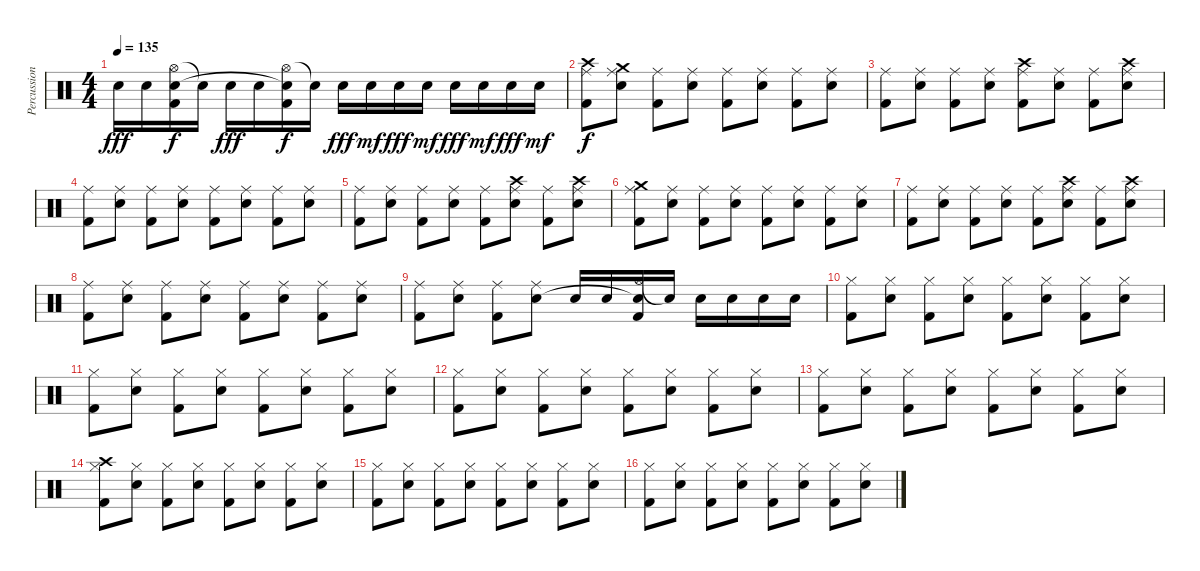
\track ("Percussion" "Percussion") {instrument percussion}
\staff {score}
\articulation defaults
\ts (4 4)
\tempo 135
\clef neutral
\ks c "Electric Snare (hit)".16{dy fff} "Electric Snare (hit)".16
("Hi-Hat (open)" "Snare (hit)"{t} "Kick (hit) 2").16{dy f} "Electric Snare (hit)"{t}.16 "Electric Snare (hit)".16{dy fff} "Electric Snare (hit)".16 ("Hi-Hat (open)" "Snare (hit)"{t} "Kick (hit) 2").16{dy f} "Electric Snare (hit)"{t}.16 "Electric Snare (hit)".16{dy fff} "Electric Snare (hit)".16{dy mf} "Electric Snare (hit)".16{dy fff} "Electric Snare (hit)".16{dy mf} "Electric Snare (hit)".16{dy fff} "Electric Snare (hit)".16{dy mf} "Electric Snare (hit)".16{dy fff} "Electric Snare (hit)".16{dy mf} |
("Crash high (hit)" "Ride (middle)" "Kick (hit) 2").8{dy f} ("Crash medium (hit)" "Ride (middle)" "Electric Snare (hit)").8 ("Ride (middle)" "Kick (hit) 2").8 ("Ride (middle)" "Electric Snare (hit)").8 ("Ride (middle)" "Kick (hit) 2").8 ("Ride (middle)" "Electric Snare (hit)").8 ("Ride (middle)" "Kick (hit) 2").8 ("Ride (middle)" "Electric Snare (hit)").8 |
("Ride (middle)" "Kick (hit) 2").8 ("Ride (middle)" "Electric Snare (hit)").8 ("Ride (middle)" "Kick (hit) 2").8 ("Ride (middle)" "Electric Snare (hit)").8 ("Crash high (hit)" "Ride (middle)" "Kick (hit) 2").8 ("Ride (middle)" "Electric Snare (hit)").8 ("Ride (middle)" "Kick (hit) 2").8 ("Crash high (hit)" "Ride (middle)" "Electric Snare (hit)").8 |
("Ride (middle)" "Kick (hit) 2").8 ("Ride (middle)" "Electric Snare (hit)").8 ("Ride (middle)" "Kick (hit) 2").8 ("Ride (middle)" "Electric Snare (hit)").8 ("Ride (middle)" "Kick (hit) 2").8 ("Ride (middle)" "Electric Snare (hit)").8 ("Ride (middle)" "Kick (hit) 2").8 ("Ride (middle)" "Electric Snare (hit)").8 |
("Ride (middle)" "Kick (hit) 2").8 ("Ride (middle)" "Electric Snare (hit)").8 ("Ride (middle)" "Kick (hit) 2").8 ("Ride (middle)" "Electric Snare (hit)").8 ("Ride (middle)" "Kick (hit) 2").8 ("Crash high (hit)" "Ride (middle)" "Electric Snare (hit)").8 ("Ride (middle)" "Kick (hit) 2").8 ("Crash high (hit)" "Ride (middle)" "Electric Snare (hit)").8 |
("Crash medium (hit)" "Ride (middle)" "Kick (hit) 2").8 ("Ride (middle)" "Electric Snare (hit)").8 ("Ride (middle)" "Kick (hit) 2").8 ("Ride (middle)" "Electric Snare (hit)").8 ("Ride (middle)" "Kick (hit) 2").8 ("Ride (middle)" "Electric Snare (hit)").8 ("Ride (middle)" "Kick (hit) 2").8 ("Ride (middle)" "Electric Snare (hit)").8 |
("Ride (middle)" "Kick (hit) 2").8 ("Ride (middle)" "Electric Snare (hit)").8 ("Ride (middle)" "Kick (hit) 2").8 ("Ride (middle)" "Electric Snare (hit)").8 ("Ride (middle)" "Kick (hit) 2").8 ("Crash high (hit)" "Ride (middle)" "Electric Snare (hit)").8 ("Ride (middle)" "Kick (hit) 2").8 ("Crash high (hit)" "Ride (middle)" "Electric Snare (hit)").8 |
("Ride (middle)" "Kick (hit) 2").8 ("Ride (middle)" "Electric Snare (hit)").8 ("Ride (middle)" "Kick (hit) 2").8 ("Ride (middle)" "Electric Snare (hit)").8 ("Ride (middle)" "Kick (hit) 2").8 ("Ride (middle)" "Electric Snare (hit)").8 ("Ride (middle)" "Kick (hit) 2").8 ("Ride (middle)" "Electric Snare (hit)").8 |
("Ride (middle)" "Kick (hit) 2").8 ("Ride (middle)" "Electric Snare (hit)").8 ("Ride (middle)" "Kick (hit) 2").8 ("Ride (middle)" "Electric Snare (hit)").8 "Electric Snare (hit)".16 "Electric Snare (hit)".16 ("Hi-Hat (open)" "Electric Snare (hit)"{t} "Kick (hit) 2").16 "Electric Snare (hit)"{t}.16 "Electric Snare (hit)".16 "Electric Snare (hit)".16 "Electric Snare (hit)".16 "Electric Snare (hit)".16 |
("Hi-Hat (closed)" "Kick (hit) 2").8 ("Hi-Hat (closed)" "Electric Snare (hit)").8 ("Hi-Hat (closed)" "Kick (hit) 2").8 ("Hi-Hat (closed)" "Electric Snare (hit)").8 ("Hi-Hat (closed)" "Kick (hit) 2").8 ("Hi-Hat (closed)" "Electric Snare (hit)").8 ("Hi-Hat (closed)" "Kick (hit) 2").8 ("Hi-Hat (closed)" "Electric Snare (hit)").8 |
("Hi-Hat (closed)" "Kick (hit) 2").8 ("Hi-Hat (closed)" "Electric Snare (hit)").8 ("Hi-Hat (closed)" "Kick (hit) 2").8 ("Hi-Hat (closed)" "Electric Snare (hit)").8 ("Hi-Hat (closed)" "Kick (hit) 2").8 ("Hi-Hat (closed)" "Electric Snare (hit)").8 ("Hi-Hat (closed)" "Kick (hit) 2").8 ("Hi-Hat (closed)" "Electric Snare (hit)").8 |
("Hi-Hat (closed)" "Kick (hit) 2").8 ("Hi-Hat (closed)" "Electric Snare (hit)").8 ("Hi-Hat (closed)" "Kick (hit) 2").8 ("Hi-Hat (closed)" "Electric Snare (hit)").8 ("Hi-Hat (closed)" "Kick (hit) 2").8 ("Hi-Hat (closed)" "Electric Snare (hit)").8 ("Hi-Hat (closed)" "Kick (hit) 2").8 ("Hi-Hat (closed)" "Electric Snare (hit)").8 |
("Hi-Hat (closed)" "Kick (hit) 2").8 ("Hi-Hat (closed)" "Electric Snare (hit)").8 ("Hi-Hat (closed)" "Kick (hit) 2").8 ("Hi-Hat (closed)" "Electric Snare (hit)").8 ("Hi-Hat (closed)" "Kick (hit) 2").8 ("Hi-Hat (closed)" "Electric Snare (hit)").8 ("Hi-Hat (closed)" "Kick (hit) 2").8 ("Hi-Hat (closed)" "Electric Snare (hit)").8 |
("Crash high (hit)" "Hi-Hat (closed)" "Kick (hit) 2").8 ("Hi-Hat (closed)" "Electric Snare (hit)").8 ("Hi-Hat (closed)" "Kick (hit) 2").8 ("Hi-Hat (closed)" "Electric Snare (hit)").8 ("Hi-Hat (closed)" "Kick (hit) 2").8 ("Hi-Hat (closed)" "Electric Snare (hit)").8 ("Hi-Hat (closed)" "Kick (hit) 2").8 ("Hi-Hat (closed)" "Electric Snare (hit)").8 |
("Hi-Hat (closed)" "Kick (hit) 2").8 ("Hi-Hat (closed)" "Electric Snare (hit)").8 ("Hi-Hat (closed)" "Kick (hit) 2").8 ("Hi-Hat (closed)" "Electric Snare (hit)").8 ("Hi-Hat (closed)" "Kick (hit) 2").8 ("Hi-Hat (closed)" "Electric Snare (hit)").8 ("Hi-Hat (closed)" "Kick (hit) 2").8 ("Hi-Hat (closed)" "Electric Snare (hit)").8 |
("Hi-Hat (closed)" "Kick (hit) 2").8 ("Hi-Hat (closed)" "Electric Snare (hit)").8 ("Hi-Hat (closed)" "Kick (hit) 2").8 ("Hi-Hat (closed)" "Electric Snare (hit)").8 ("Hi-Hat (closed)" "Kick (hit) 2").8 ("Hi-Hat (closed)" "Electric Snare (hit)").8 ("Hi-Hat (closed)" "Kick (hit) 2").8 ("Hi-Hat (closed)" "Electric Snare (hit)").8
